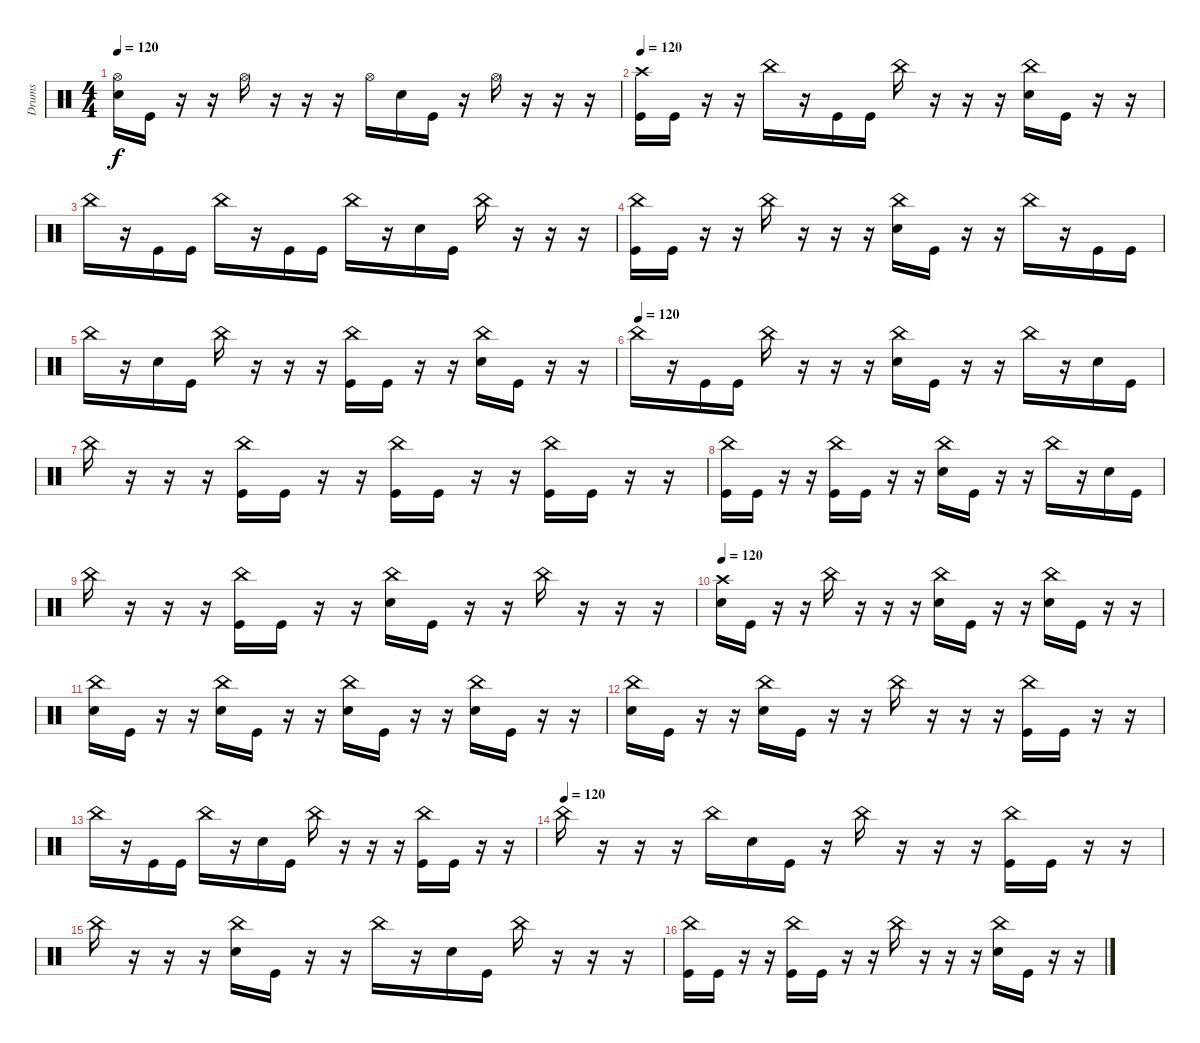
\track ("Drums" "Drums") {instrument percussion}
\staff {score}
\articulation defaults
\ts (4 4)
\tempo 120
\clef neutral
\ks c
("Hi-Hat (open)" "Snare (hit) 2").16{dy f} "Kick (hit)".16 r.16 r.16 "Hi-Hat (open)".16 r.16 r.16 r.16 "Hi-Hat (open)".16 "Snare (hit) 2".16 "Kick (hit)".16 r.16 "Hi-Hat (open)".16 r.16 r.16 r.16 |
\tempo 120
("Crash high (hit)" "Kick (hit)").16 "Kick (hit)".16 r.16 r.16 "China (hit)".16 r.16 "Kick (hit)".16 "Kick (hit)".16 "China (hit)".16 r.16 r.16 r.16 ("China (hit)" "Snare (hit) 2").16 "Kick (hit)".16 r.16 r.16 |
"China (hit)".16 r.16 "Kick (hit)".16 "Kick (hit)".16 "China (hit)".16 r.16 "Kick (hit)".16 "Kick (hit)".16 "China (hit)".16 r.16 "Snare (hit) 2".16 "Kick (hit)".16 "China (hit)".16 r.16 r.16 r.16 |
("China (hit)" "Kick (hit)").16 "Kick (hit)".16 r.16 r.16 "China (hit)".16 r.16 r.16 r.16 ("China (hit)" "Snare (hit) 2").16 "Kick (hit)".16 r.16 r.16 "China (hit)".16 r.16 "Kick (hit)".16 "Kick (hit)".16 |
"China (hit)".16 r.16 "Snare (hit) 2".16 "Kick (hit)".16 "China (hit)".16 r.16 r.16 r.16 ("China (hit)" "Kick (hit)").16 "Kick (hit)".16 r.16 r.16 ("China (hit)" "Snare (hit) 2").16 "Kick (hit)".16 r.16 r.16 |
\tempo (120)
"China (hit)".16 r.16 "Kick (hit)".16 "Kick (hit)".16 "China (hit)".16 r.16 r.16 r.16 ("China (hit)" "Snare (hit) 2").16 "Kick (hit)".16 r.16 r.16 "China (hit)".16 r.16 "Snare (hit) 2".16 "Kick (hit)".16 |
"China (hit)".16 r.16 r.16 r.16 ("China (hit)" "Kick (hit)").16 "Kick (hit)".16 r.16 r.16 ("China (hit)" "Kick (hit)").16 "Kick (hit)".16 r.16 r.16 ("China (hit)" "Kick (hit)").16 "Kick (hit)".16 r.16 r.16 |
("China (hit)" "Kick (hit)").16 "Kick (hit)".16 r.16 r.16 ("China (hit)" "Kick (hit)").16 "Kick (hit)".16 r.16 r.16 ("China (hit)" "Snare (hit) 2").16 "Kick (hit)".16 r.16 r.16 "China (hit)".16 r.16 "Snare (hit) 2".16 "Kick (hit)".16 |
"China (hit)".16 r.16 r.16 r.16 ("China (hit)" "Kick (hit)").16 "Kick (hit)".16 r.16 r.16 ("China (hit)" "Snare (hit) 2").16 "Kick (hit)".16 r.16 r.16 "China (hit)".16 r.16 r.16 r.16 |
\tempo 120
("Crash high (hit)" "Snare (hit) 2").16 "Kick (hit)".16 r.16 r.16 "China (hit)".16 r.16 r.16 r.16 ("China (hit)" "Snare (hit) 2").16 "Kick (hit)".16 r.16 r.16 ("China (hit)" "Snare (hit) 2").16 "Kick (hit)".16 r.16 r.16 |
("China (hit)" "Snare (hit) 2").16 "Kick (hit)".16 r.16 r.16 ("China (hit)" "Snare (hit) 2").16 "Kick (hit)".16 r.16 r.16 ("China (hit)" "Snare (hit) 2").16 "Kick (hit)".16 r.16 r.16 ("China (hit)" "Snare (hit) 2").16 "Kick (hit)".16 r.16 r.16 |
("China (hit)" "Snare (hit) 2").16 "Kick (hit)".16 r.16 r.16 ("China (hit)" "Snare (hit) 2").16 "Kick (hit)".16 r.16 r.16 "China (hit)".16 r.16 r.16 r.16 ("China (hit)" "Kick (hit)").16 "Kick (hit)".16 r.16 r.16 |
"China (hit)".16 r.16 "Kick (hit)".16 "Kick (hit)".16 "China (hit)".16 r.16 "Snare (hit) 2".16 "Kick (hit)".16 "China (hit)".16 r.16 r.16 r.16 ("China (hit)" "Kick (hit)").16 "Kick (hit)".16 r.16 r.16 |
\tempo (120)
"China (hit)".16 r.16 r.16 r.16 "China (hit)".16 "Snare (hit) 2".16 "Kick (hit)".16 r.16 "China (hit)".16 r.16 r.16 r.16 ("China (hit)" "Kick (hit)").16 "Kick (hit)".16 r.16 r.16 |
"China (hit)".16 r.16 r.16 r.16 ("China (hit)" "Snare (hit) 2").16 "Kick (hit)".16 r.16 r.16 "China (hit)".16 r.16 "Snare (hit) 2".16 "Kick (hit)".16 "China (hit)".16 r.16 r.16 r.16 |
("China (hit)" "Kick (hit)").16 "Kick (hit)".16 r.16 r.16 ("China (hit)" "Kick (hit)").16 "Kick (hit)".16 r.16 r.16 "China (hit)".16 r.16 r.16 r.16 ("China (hit)" "Snare (hit) 2").16 "Kick (hit)".16 r.16 r.16
